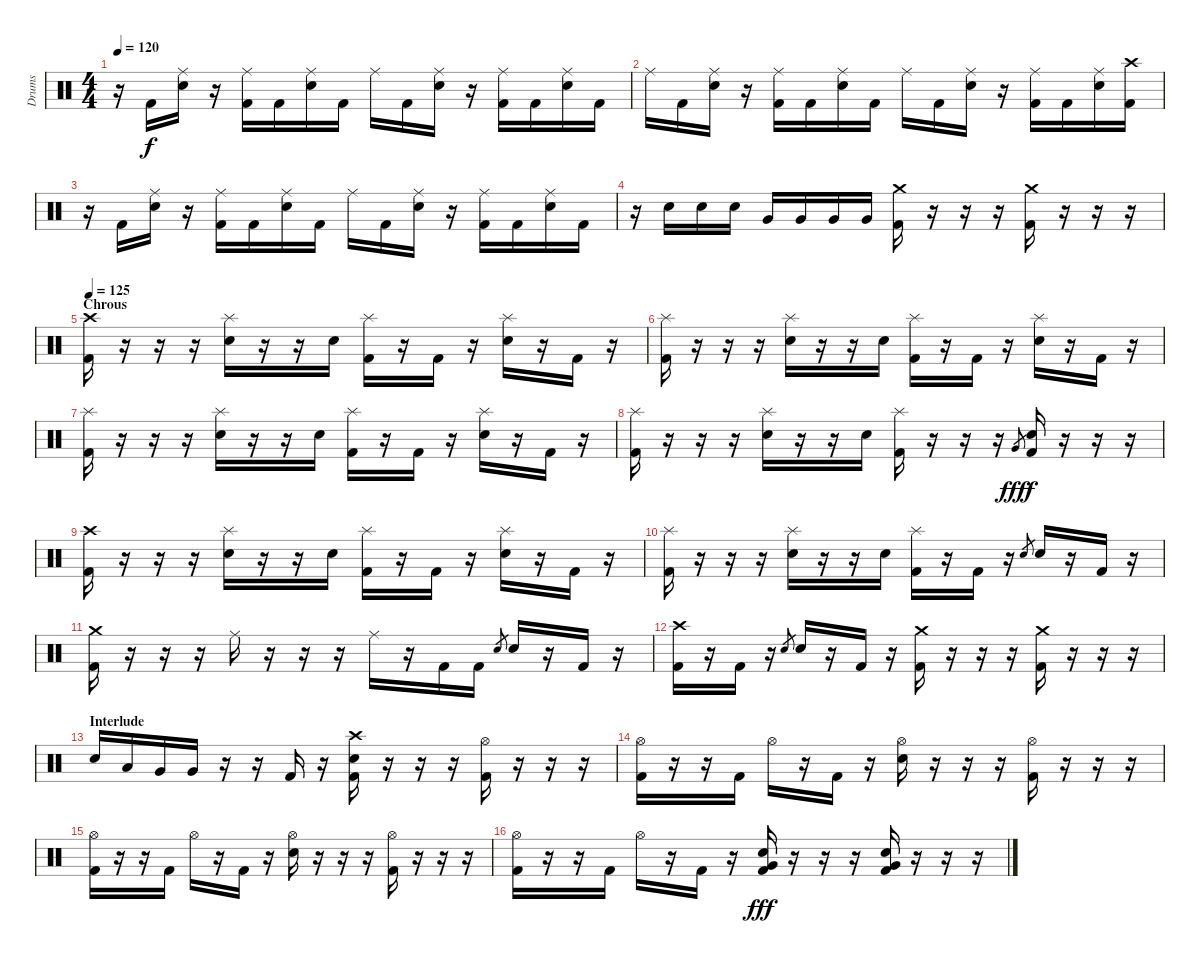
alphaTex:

\track ("Drums" "Drums") {instrument percussion}
\staff {score}
\articulation defaults
\ts (4 4)
\tempo 120
\clef neutral
\ks c
r.16{dy f} "Kick (hit) 2".16 ("Ride (middle)" "Electric Snare (hit)").16 r.16 ("Ride (middle)" "Kick (hit) 2").16 "Kick (hit) 2".16 ("Ride (middle)" "Electric Snare (hit)").16 "Kick (hit) 2".16 "Ride (middle)".16 "Kick (hit) 2".16 ("Ride (middle)" "Electric Snare (hit)").16 r.16 ("Ride (middle)" "Kick (hit) 2").16 "Kick (hit) 2".16 ("Ride (middle)" "Electric Snare (hit)").16 "Kick (hit) 2".16 |
"Ride (middle)".16 "Kick (hit) 2".16 ("Ride (middle)" "Electric Snare (hit)").16 r.16 ("Ride (middle)" "Kick (hit) 2").16 "Kick (hit) 2".16 ("Ride (middle)" "Electric Snare (hit)").16 "Kick (hit) 2".16 "Ride (middle)".16 "Kick (hit) 2".16 ("Ride (middle)" "Electric Snare (hit)").16 r.16 ("Ride (middle)" "Kick (hit) 2").16 "Kick (hit) 2".16 ("Ride (middle)" "Electric Snare (hit)").16 ("Crash high (hit)" "Kick (hit) 2").16 |
r.16 "Kick (hit) 2".16 ("Ride (middle)" "Electric Snare (hit)").16 r.16 ("Ride (middle)" "Kick (hit) 2").16 "Kick (hit) 2".16 ("Ride (middle)" "Electric Snare (hit)").16 "Kick (hit) 2".16 "Ride (middle)".16 "Kick (hit) 2".16 ("Ride (middle)" "Electric Snare (hit)").16 r.16 ("Ride (middle)" "Kick (hit) 2").16 "Kick (hit) 2".16 ("Ride (middle)" "Electric Snare (hit)").16 "Kick (hit) 2".16 |
r.16 "Electric Snare (hit)".16 "Electric Snare (hit)".16 "Electric Snare (hit)".16 "Very Low Tom (hit)".16 "Very Low Tom (hit)".16 "Very Low Tom (hit)".16 "Very Low Tom (hit)".16 ("Crash medium (hit)" "Kick (hit) 2").16 r.16 r.16 r.16 ("Crash medium (hit)" "Kick (hit) 2").16 r.16 r.16 r.16 |
\section ("" "Chrous")
\tempo 125
("Crash high (hit)" "Kick (hit) 2").16 r.16 r.16 r.16 ("Splash (hit)" "Electric Snare (hit)").16 r.16 r.16 "Electric Snare (hit)".16 ("Splash (hit)" "Kick (hit) 2").16 r.16 "Kick (hit) 2".16 r.16 ("Splash (hit)" "Electric Snare (hit)").16 r.16 "Kick (hit) 2".16 r.16 |
("Splash (hit)" "Kick (hit) 2").16 r.16 r.16 r.16 ("Splash (hit)" "Electric Snare (hit)").16 r.16 r.16 "Electric Snare (hit)".16 ("Splash (hit)" "Kick (hit) 2").16 r.16 "Kick (hit) 2".16 r.16 ("Splash (hit)" "Electric Snare (hit)").16 r.16 "Kick (hit) 2".16 r.16 |
("Splash (hit)" "Kick (hit) 2").16 r.16 r.16 r.16 ("Splash (hit)" "Electric Snare (hit)").16 r.16 r.16 "Electric Snare (hit)".16 ("Splash (hit)" "Kick (hit) 2").16 r.16 "Kick (hit) 2".16 r.16 ("Splash (hit)" "Electric Snare (hit)").16 r.16 "Kick (hit) 2".16 r.16 |
("Splash (hit)" "Kick (hit) 2").16 r.16 r.16 r.16 ("Splash (hit)" "Electric Snare (hit)").16 r.16 r.16 "Electric Snare (hit)".16 ("Splash (hit)" "Kick (hit) 2").16 r.16 r.16 r.16 "Very Low Tom (hit)".8{gr dy fff} ("Electric Snare (hit)" "Kick (hit) 2").16{dy f} r.16 r.16 r.16 |
("Crash high (hit)" "Kick (hit) 2").16 r.16 r.16 r.16 ("Splash (hit)" "Electric Snare (hit)").16 r.16 r.16 "Electric Snare (hit)".16 ("Splash (hit)" "Kick (hit) 2").16 r.16 "Kick (hit) 2".16 r.16 ("Splash (hit)" "Electric Snare (hit)").16 r.16 "Kick (hit) 2".16 r.16 |
("Splash (hit)" "Kick (hit) 2").16 r.16 r.16 r.16 ("Splash (hit)" "Electric Snare (hit)").16 r.16 r.16 "Electric Snare (hit)".16 ("Splash (hit)" "Kick (hit) 2").16 r.16 "Kick (hit) 2".16 r.16 "Electric Snare (hit)".8{gr} "Electric Snare (hit)".16 r.16 "Kick (hit) 2".16 r.16 |
("Crash medium (hit)" "Kick (hit) 2").16 r.16 r.16 r.16 "Ride (middle)".16 r.16 r.16 r.16 "Ride (middle)".16 r.16 "Kick (hit) 2".16 "Kick (hit) 2".16 "Electric Snare (hit)".8{gr} "Electric Snare (hit)".16 r.16 "Kick (hit) 2".16 r.16 |
("Crash high (hit)" "Kick (hit) 2").16 r.16 "Kick (hit) 2".16 r.16 "Electric Snare (hit)".8{gr} "Electric Snare (hit)".16 r.16 "Kick (hit) 2".16 r.16 ("Crash medium (hit)" "Kick (hit) 2").16 r.16 r.16 r.16 ("Crash medium (hit)" "Kick (hit) 2").16 r.16 r.16 r.16 |
\section ("" "Interlude")
"Electric Snare (hit)".16 "Low Tom (hit)".16 "Very Low Tom (hit)".16 "Very Low Tom (hit)".16 r.16 r.16 "Kick (hit) 2".16 r.16 ("Crash high (hit)" "Electric Snare (hit)" "Kick (hit) 2").16 r.16 r.16 r.16 ("Hi-Hat (open)" "Kick (hit) 2").16 r.16 r.16 r.16 |
("Hi-Hat (open)" "Kick (hit) 2").16 r.16 r.16 "Kick (hit) 2".16 "Hi-Hat (open)".16 r.16 "Kick (hit) 2".16 r.16 ("Hi-Hat (open)" "Electric Snare (hit)").16 r.16 r.16 r.16 ("Hi-Hat (open)" "Kick (hit) 2").16 r.16 r.16 r.16 |
("Hi-Hat (open)" "Kick (hit) 2").16 r.16 r.16 "Kick (hit) 2".16 "Hi-Hat (open)".16 r.16 "Kick (hit) 2".16 r.16 ("Hi-Hat (open)" "Electric Snare (hit)").16 r.16 r.16 r.16 ("Hi-Hat (open)" "Kick (hit) 2").16 r.16 r.16 r.16 |
("Hi-Hat (open)" "Kick (hit) 2").16 r.16 r.16 "Kick (hit) 2".16 "Hi-Hat (open)".16 r.16 "Kick (hit) 2".16 r.16 ("Electric Snare (hit)" "Very Low Tom (hit)" "Kick (hit) 2").16{dy fff} r.16 r.16 r.16 ("Electric Snare (hit)" "Very Low Tom (hit)" "Kick (hit) 2").16 r.16 r.16 r.16
